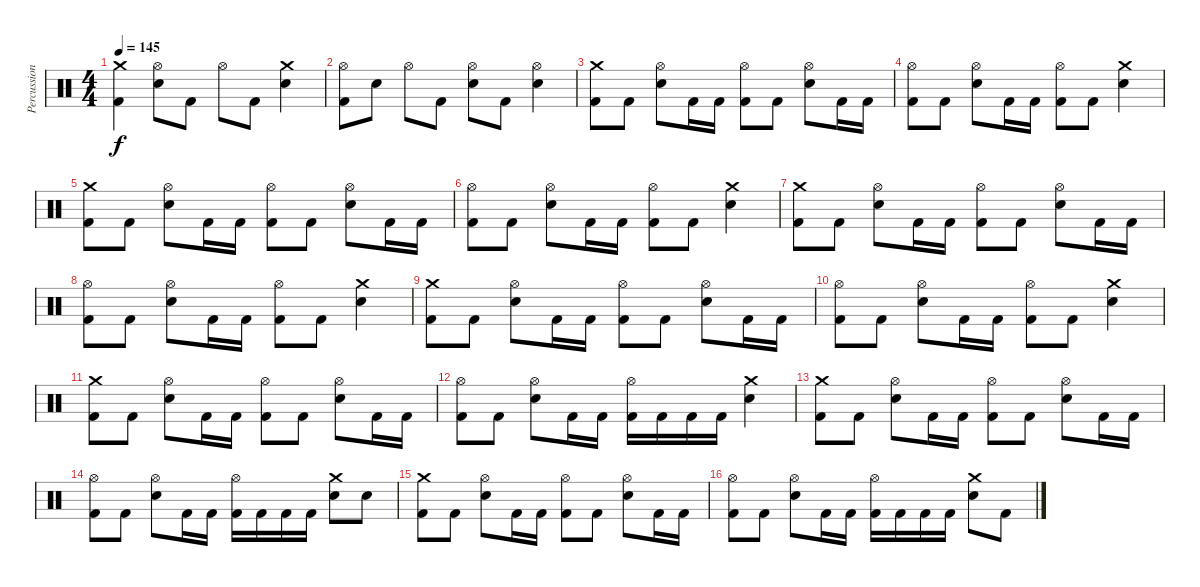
\track ("Percussion" "Percussion") {instrument percussion}
\staff {score}
\articulation defaults
\ts (4 4)
\tempo 145
\clef neutral
\ks c
("Crash medium (hit)" "Kick (hit) 2").4{dy f} ("Hi-Hat (open)" "Snare (hit) 2").8 "Kick (hit) 2".8 "Hi-Hat (open)".8 "Kick (hit) 2".8 ("Crash medium (hit)" "Snare (hit) 2").4 |
("Hi-Hat (open)" "Kick (hit) 2").8 "Snare (hit) 2".8 "Hi-Hat (open)".8 "Kick (hit) 2".8 ("Hi-Hat (open)" "Snare (hit) 2").8 "Kick (hit) 2".8 ("Hi-Hat (open)" "Snare (hit) 2").4 |
("Crash medium (hit)" "Kick (hit) 2").8 "Kick (hit) 2".8 ("Hi-Hat (open)" "Snare (hit) 2").8 "Kick (hit) 2".16 "Kick (hit) 2".16 ("Hi-Hat (open)" "Kick (hit) 2").8 "Kick (hit) 2".8 ("Hi-Hat (open)" "Snare (hit) 2").8 "Kick (hit) 2".16 "Kick (hit) 2".16 |
("Hi-Hat (open)" "Kick (hit) 2").8 "Kick (hit) 2".8 ("Hi-Hat (open)" "Snare (hit) 2").8 "Kick (hit) 2".16 "Kick (hit) 2".16 ("Hi-Hat (open)" "Kick (hit) 2").8 "Kick (hit) 2".8 ("Crash medium (hit)" "Snare (hit) 2").4 |
("Crash medium (hit)" "Kick (hit) 2").8 "Kick (hit) 2".8 ("Hi-Hat (open)" "Snare (hit) 2").8 "Kick (hit) 2".16 "Kick (hit) 2".16 ("Hi-Hat (open)" "Kick (hit) 2").8 "Kick (hit) 2".8 ("Hi-Hat (open)" "Snare (hit) 2").8 "Kick (hit) 2".16 "Kick (hit) 2".16 |
("Hi-Hat (open)" "Kick (hit) 2").8 "Kick (hit) 2".8 ("Hi-Hat (open)" "Snare (hit) 2").8 "Kick (hit) 2".16 "Kick (hit) 2".16 ("Hi-Hat (open)" "Kick (hit) 2").8 "Kick (hit) 2".8 ("Crash medium (hit)" "Snare (hit) 2").4 |
("Crash medium (hit)" "Kick (hit) 2").8 "Kick (hit) 2".8 ("Hi-Hat (open)" "Snare (hit) 2").8 "Kick (hit) 2".16 "Kick (hit) 2".16 ("Hi-Hat (open)" "Kick (hit) 2").8 "Kick (hit) 2".8 ("Hi-Hat (open)" "Snare (hit) 2").8 "Kick (hit) 2".16 "Kick (hit) 2".16 |
("Hi-Hat (open)" "Kick (hit) 2").8 "Kick (hit) 2".8 ("Hi-Hat (open)" "Snare (hit) 2").8 "Kick (hit) 2".16 "Kick (hit) 2".16 ("Hi-Hat (open)" "Kick (hit) 2").8 "Kick (hit) 2".8 ("Crash medium (hit)" "Snare (hit) 2").4 |
("Crash medium (hit)" "Kick (hit) 2").8 "Kick (hit) 2".8 ("Hi-Hat (open)" "Snare (hit) 2").8 "Kick (hit) 2".16 "Kick (hit) 2".16 ("Hi-Hat (open)" "Kick (hit) 2").8 "Kick (hit) 2".8 ("Hi-Hat (open)" "Snare (hit) 2").8 "Kick (hit) 2".16 "Kick (hit) 2".16 |
("Hi-Hat (open)" "Kick (hit) 2").8 "Kick (hit) 2".8 ("Hi-Hat (open)" "Snare (hit) 2").8 "Kick (hit) 2".16 "Kick (hit) 2".16 ("Hi-Hat (open)" "Kick (hit) 2").8 "Kick (hit) 2".8 ("Crash medium (hit)" "Snare (hit) 2").4 |
("Crash medium (hit)" "Kick (hit) 2").8 "Kick (hit) 2".8 ("Hi-Hat (open)" "Snare (hit) 2").8 "Kick (hit) 2".16 "Kick (hit) 2".16 ("Hi-Hat (open)" "Kick (hit) 2").8 "Kick (hit) 2".8 ("Hi-Hat (open)" "Snare (hit) 2").8 "Kick (hit) 2".16 "Kick (hit) 2".16 |
("Hi-Hat (open)" "Kick (hit) 2").8 "Kick (hit) 2".8 ("Hi-Hat (open)" "Snare (hit) 2").8 "Kick (hit) 2".16 "Kick (hit) 2".16 ("Hi-Hat (open)" "Kick (hit) 2").16 "Kick (hit) 2".16 "Kick (hit) 2".16 "Kick (hit) 2".16 ("Crash medium (hit)" "Snare (hit) 2").4 |
("Crash medium (hit)" "Kick (hit) 2").8 "Kick (hit) 2".8 ("Hi-Hat (open)" "Snare (hit) 2").8 "Kick (hit) 2".16 "Kick (hit) 2".16 ("Hi-Hat (open)" "Kick (hit) 2").8 "Kick (hit) 2".8 ("Hi-Hat (open)" "Snare (hit) 2").8 "Kick (hit) 2".16 "Kick (hit) 2".16 |
("Hi-Hat (open)" "Kick (hit) 2").8 "Kick (hit) 2".8 ("Hi-Hat (open)" "Snare (hit) 2").8 "Kick (hit) 2".16 "Kick (hit) 2".16 ("Hi-Hat (open)" "Kick (hit) 2").16 "Kick (hit) 2".16 "Kick (hit) 2".16 "Kick (hit) 2".16 ("Crash medium (hit)" "Snare (hit) 2").8 "Snare (hit) 2".8 |
("Crash medium (hit)" "Kick (hit) 2").8 "Kick (hit) 2".8 ("Hi-Hat (open)" "Snare (hit) 2").8 "Kick (hit) 2".16 "Kick (hit) 2".16 ("Hi-Hat (open)" "Kick (hit) 2").8 "Kick (hit) 2".8 ("Hi-Hat (open)" "Snare (hit) 2").8 "Kick (hit) 2".16 "Kick (hit) 2".16 |
("Hi-Hat (open)" "Kick (hit) 2").8 "Kick (hit) 2".8 ("Hi-Hat (open)" "Snare (hit) 2").8 "Kick (hit) 2".16 "Kick (hit) 2".16 ("Hi-Hat (open)" "Kick (hit) 2").16 "Kick (hit) 2".16 "Kick (hit) 2".16 "Kick (hit) 2".16 ("Crash medium (hit)" "Snare (hit) 2").8 "Kick (hit) 2".8
